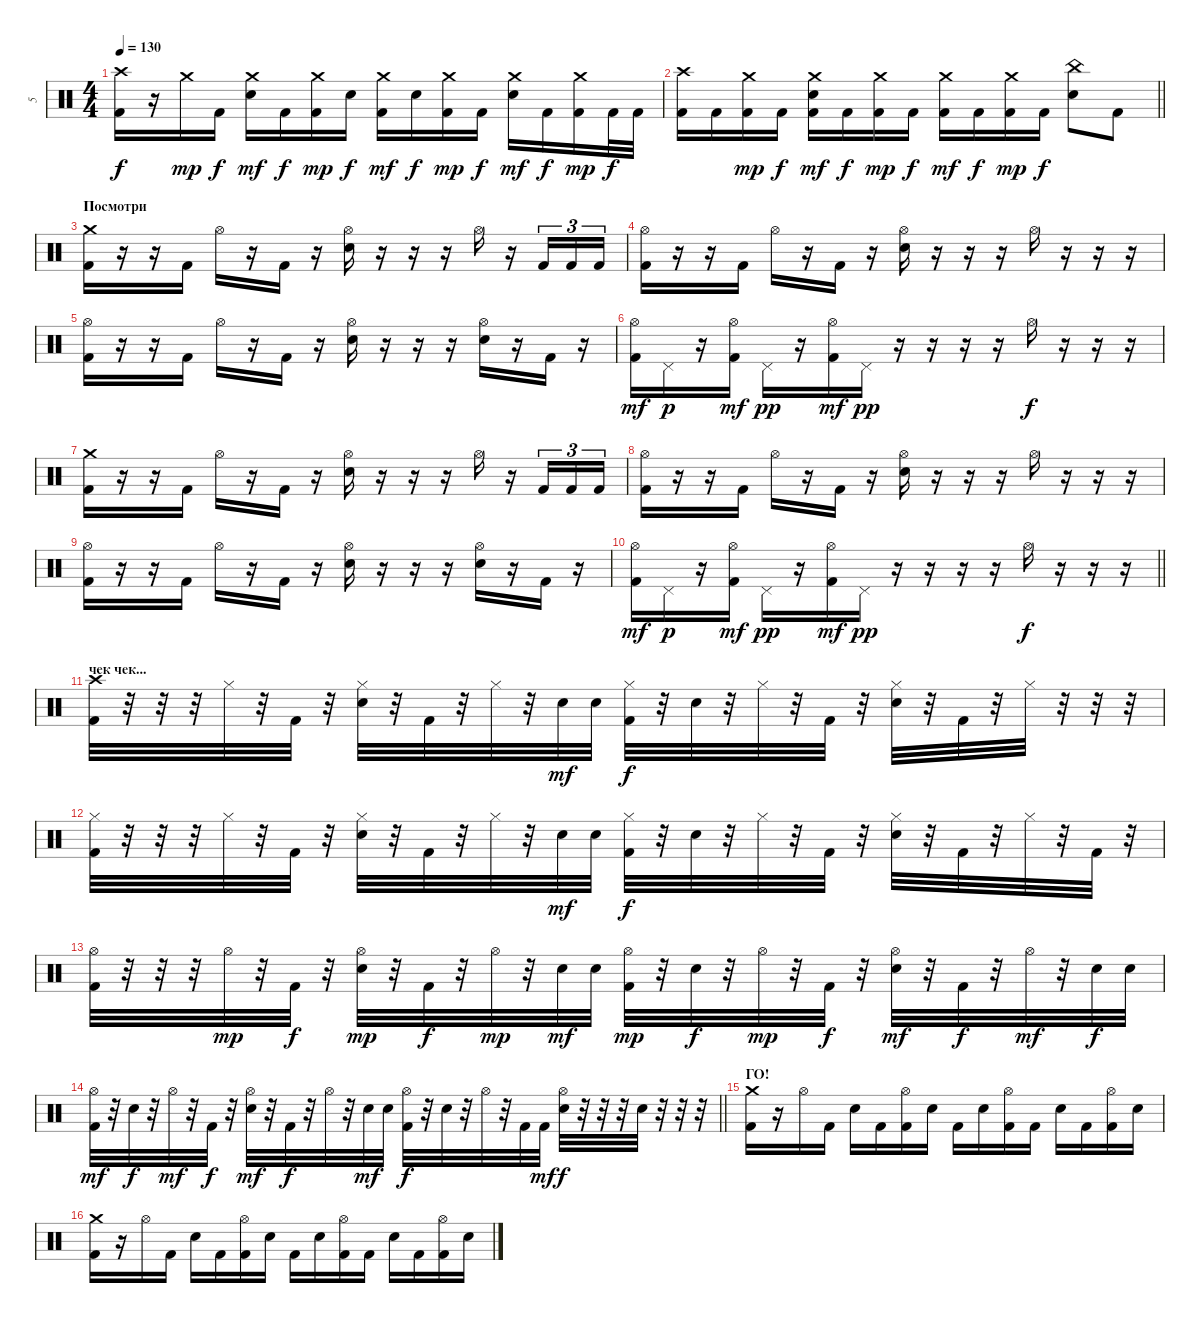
\track ("5" "5") {instrument percussion}
\staff {score}
\articulation defaults
\ts (4 4)
\tempo 130
\clef neutral
\ks c
("Crash high (hit)" "Kick (hit) 2").16{dy f} r.16 "Crash medium (hit)".16{dy mp} "Kick (hit) 2".16{dy f} ("Crash medium (hit)" "Electric Snare (hit)").16{dy mf} "Kick (hit) 2".16{dy f} ("Crash medium (hit)" "Kick (hit) 2").16{dy mp} "Electric Snare (hit)".16{dy f} ("Crash medium (hit)" "Kick (hit) 2").16{dy mf} "Electric Snare (hit)".16{dy f} ("Crash medium (hit)" "Kick (hit) 2").16{dy mp} "Kick (hit) 2".16{dy f} ("Crash medium (hit)" "Electric Snare (hit)").16{dy mf} "Kick (hit) 2".16{dy f} ("Crash medium (hit)" "Kick (hit) 2").16{dy mp} "Kick (hit) 2".32{dy f} "Kick (hit) 2".32 |
\barLineRight lightlight
("Crash high (hit)" "Kick (hit) 2").16 "Kick (hit) 2".16 ("Crash medium (hit)" "Kick (hit) 2").16{dy mp} "Kick (hit) 2".16{dy f} ("Crash medium (hit)" "Electric Snare (hit)" "Kick (hit) 2").16{dy mf} "Kick (hit) 2".16{dy f} ("Crash medium (hit)" "Kick (hit) 2").16{dy mp} "Kick (hit) 2".16{dy f} ("Crash medium (hit)" "Kick (hit) 2").16{dy mf} "Kick (hit) 2".16{dy f} ("Crash medium (hit)" "Kick (hit) 2").16{dy mp} "Kick (hit) 2".16{dy f} ("China (hit)" "Electric Snare (hit)").8 "Kick (hit) 2".8 |
\section ("" "Посмотри")
("Crash medium (hit)" "Kick (hit) 2").16 r.16 r.16 "Kick (hit) 2".16 "Hi-Hat (open)".16 r.16 "Kick (hit) 2".16 r.16 ("Hi-Hat (open)" "Electric Snare (hit)").16 r.16 r.16 r.16 "Hi-Hat (open)".16 r.16 "Kick (hit) 2".16{tu (3 2)} "Kick (hit) 2".16{tu (3 2)} "Kick (hit) 2".16{tu (3 2)} |
("Hi-Hat (open)" "Kick (hit) 2").16 r.16 r.16 "Kick (hit) 2".16 "Hi-Hat (open)".16 r.16 "Kick (hit) 2".16 r.16 ("Hi-Hat (open)" "Electric Snare (hit)").16 r.16 r.16 r.16 "Hi-Hat (open)".16 r.16 r.16 r.16 |
("Hi-Hat (open)" "Kick (hit) 2").16 r.16 r.16 "Kick (hit) 2".16 "Hi-Hat (open)".16 r.16 "Kick (hit) 2".16 r.16 ("Hi-Hat (open)" "Electric Snare (hit)").16 r.16 r.16 r.16 ("Hi-Hat (open)" "Electric Snare (hit)").16 r.16 "Kick (hit) 2".16 r.16 |
("Hi-Hat (open)" "Kick (hit) 2").16{dy mf} "Pedal Hi-Hat (hit)".16{dy p} r.16 ("Hi-Hat (open)" "Kick (hit) 2").16{dy mf} "Pedal Hi-Hat (hit)".16{dy pp} r.16 ("Hi-Hat (open)" "Kick (hit) 2").16{dy mf} "Pedal Hi-Hat (hit)".16{dy pp} r.16 r.16 r.16 r.16 "Hi-Hat (open)".16{dy f} r.16 r.16 r.16 |
("Crash medium (hit)" "Kick (hit) 2").16 r.16 r.16 "Kick (hit) 2".16 "Hi-Hat (open)".16 r.16 "Kick (hit) 2".16 r.16 ("Hi-Hat (open)" "Electric Snare (hit)").16 r.16 r.16 r.16 "Hi-Hat (open)".16 r.16 "Kick (hit) 2".16{tu (3 2)} "Kick (hit) 2".16{tu (3 2)} "Kick (hit) 2".16{tu (3 2)} |
("Hi-Hat (open)" "Kick (hit) 2").16 r.16 r.16 "Kick (hit) 2".16 "Hi-Hat (open)".16 r.16 "Kick (hit) 2".16 r.16 ("Hi-Hat (open)" "Electric Snare (hit)").16 r.16 r.16 r.16 "Hi-Hat (open)".16 r.16 r.16 r.16 |
("Hi-Hat (open)" "Kick (hit) 2").16 r.16 r.16 "Kick (hit) 2".16 "Hi-Hat (open)".16 r.16 "Kick (hit) 2".16 r.16 ("Hi-Hat (open)" "Electric Snare (hit)").16 r.16 r.16 r.16 ("Hi-Hat (open)" "Electric Snare (hit)").16 r.16 "Kick (hit) 2".16 r.16 |
\barLineRight lightlight
("Hi-Hat (open)" "Kick (hit) 2").16{dy mf} "Pedal Hi-Hat (hit)".16{dy p} r.16 ("Hi-Hat (open)" "Kick (hit) 2").16{dy mf} "Pedal Hi-Hat (hit)".16{dy pp} r.16 ("Hi-Hat (open)" "Kick (hit) 2").16{dy mf} "Pedal Hi-Hat (hit)".16{dy pp} r.16 r.16 r.16 r.16 "Hi-Hat (open)".16{dy f} r.16 r.16 r.16 |
\section ("" "чек чек...")
("Crash high (hit)" "Kick (hit) 2").32 r.32 r.32 r.32 "Hi-Hat (closed)".32 r.32 "Kick (hit) 2".32 r.32 ("Hi-Hat (closed)" "Electric Snare (hit)").32 r.32 "Kick (hit) 2".32 r.32 "Hi-Hat (closed)".32 r.32 "Electric Snare (hit)".32{dy mf} "Electric Snare (hit)".32 ("Hi-Hat (closed)" "Kick (hit) 2").32{dy f} r.32 "Electric Snare (hit)".32 r.32 "Hi-Hat (closed)".32 r.32 "Kick (hit) 2".32 r.32 ("Hi-Hat (closed)" "Electric Snare (hit)").32 r.32 "Kick (hit) 2".32 r.32 "Hi-Hat (closed)".32 r.32 r.32 r.32 |
("Hi-Hat (closed)" "Kick (hit) 2").32 r.32 r.32 r.32 "Hi-Hat (closed)".32 r.32 "Kick (hit) 2".32 r.32 ("Hi-Hat (closed)" "Electric Snare (hit)").32 r.32 "Kick (hit) 2".32 r.32 "Hi-Hat (closed)".32 r.32 "Electric Snare (hit)".32{dy mf} "Electric Snare (hit)".32 ("Hi-Hat (closed)" "Kick (hit) 2").32{dy f} r.32 "Electric Snare (hit)".32 r.32 "Hi-Hat (closed)".32 r.32 "Kick (hit) 2".32 r.32 ("Hi-Hat (closed)" "Electric Snare (hit)").32 r.32 "Kick (hit) 2".32 r.32 "Hi-Hat (closed)".32 r.32 "Kick (hit) 2".32 r.32 |
("Hi-Hat (open)" "Kick (hit) 2").32 r.32 r.32 r.32 "Hi-Hat (open)".32{dy mp} r.32 "Kick (hit) 2".32{dy f} r.32 ("Hi-Hat (open)" "Electric Snare (hit)").32{dy mp} r.32 "Kick (hit) 2".32{dy f} r.32 "Hi-Hat (open)".32{dy mp} r.32 "Electric Snare (hit)".32{dy mf} "Electric Snare (hit)".32 ("Hi-Hat (open)" "Kick (hit) 2").32{dy mp} r.32 "Electric Snare (hit)".32{dy f} r.32 "Hi-Hat (open)".32{dy mp} r.32 "Kick (hit) 2".32{dy f} r.32 ("Hi-Hat (open)" "Electric Snare (hit)").32{dy mf} r.32 "Kick (hit) 2".32{dy f} r.32 "Hi-Hat (open)".32{dy mf} r.32 "Electric Snare (hit)".32{dy f} "Electric Snare (hit)".32 |
\barLineRight lightlight
("Hi-Hat (open)" "Kick (hit) 2").32{dy mf} r.32 "Electric Snare (hit)".32{dy f} r.32 "Hi-Hat (open)".32{dy mf} r.32 "Kick (hit) 2".32{dy f} r.32 ("Hi-Hat (open)" "Electric Snare (hit)").32{dy mf} r.32 "Kick (hit) 2".32{dy f} r.32 "Hi-Hat (open)".32 r.32 "Electric Snare (hit)".32{dy mf} "Electric Snare (hit)".32 ("Hi-Hat (open)" "Kick (hit) 2").32{dy f} r.32 "Electric Snare (hit)".32 r.32 "Hi-Hat (open)".32 r.32 "Kick (hit) 2".32 "Kick (hit) 2".32{dy mf} ("Hi-Hat (open)" "Electric Snare (hit)").32{dy f} r.32 r.32 r.32 "Electric Snare (hit)".32 r.32 r.32 r.32 |
\section ("" "ГО!")
("Crash medium (hit)" "Kick (hit) 2").16 r.16 "Hi-Hat (open)".16 "Kick (hit) 2".16 "Electric Snare (hit)".16 "Kick (hit) 2".16 ("Hi-Hat (open)" "Kick (hit) 2").16 "Electric Snare (hit)".16 "Kick (hit) 2".16 "Electric Snare (hit)".16 ("Hi-Hat (open)" "Kick (hit) 2").16 "Kick (hit) 2".16 "Electric Snare (hit)".16 "Kick (hit) 2".16 ("Hi-Hat (open)" "Kick (hit) 2").16 "Electric Snare (hit)".16 |
("Crash medium (hit)" "Kick (hit) 2").16 r.16 "Hi-Hat (open)".16 "Kick (hit) 2".16 "Electric Snare (hit)".16 "Kick (hit) 2".16 ("Hi-Hat (open)" "Kick (hit) 2").16 "Electric Snare (hit)".16 "Kick (hit) 2".16 "Electric Snare (hit)".16 ("Hi-Hat (open)" "Kick (hit) 2").16 "Kick (hit) 2".16 "Electric Snare (hit)".16 "Kick (hit) 2".16 ("Hi-Hat (open)" "Kick (hit) 2").16 "Electric Snare (hit)".16
